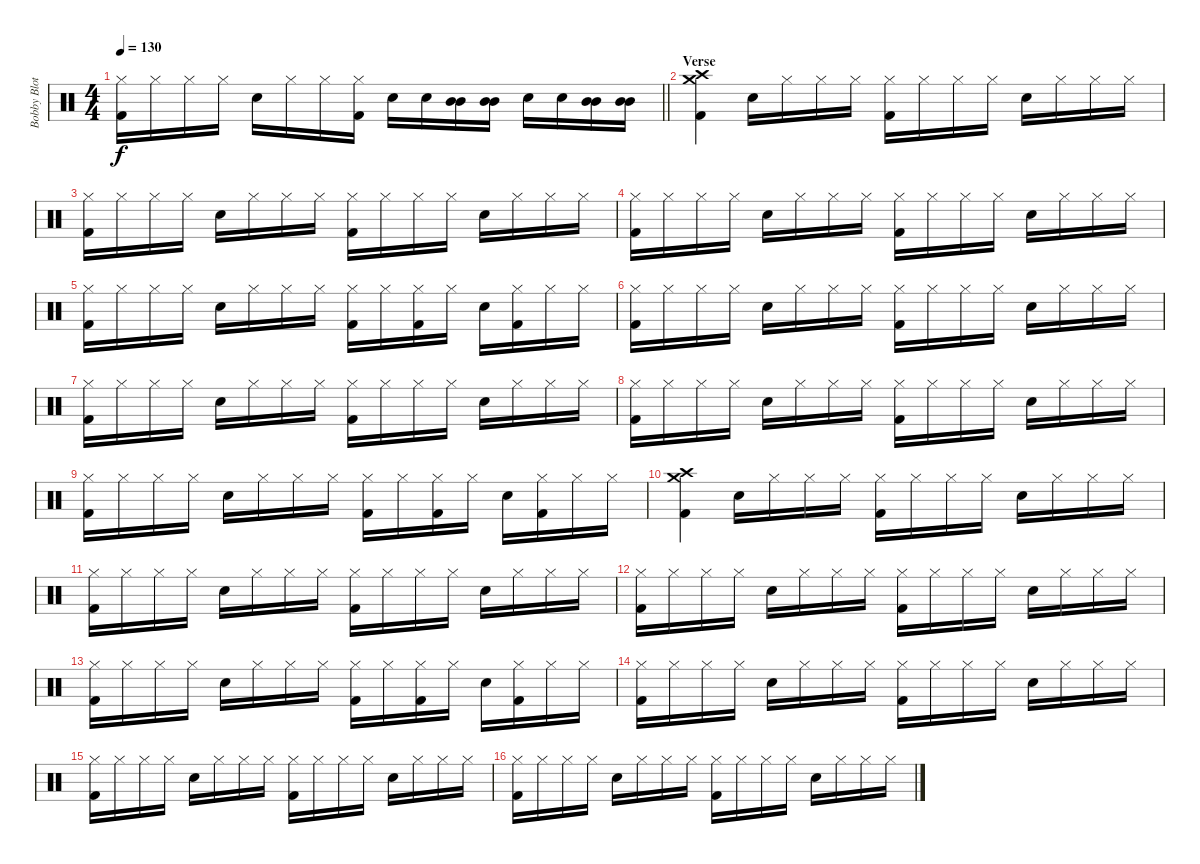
\track ("Bobby Blotzer - Drums" "Bobby Blot") {instrument percussion}
\staff {score}
\articulation defaults
\ts (4 4)
\tempo 130
\clef neutral
\barLineRight lightlight
\ks c
("Hi-Hat (closed)" "Kick (hit) 2").16{dy f} "Hi-Hat (closed)".16 "Hi-Hat (closed)".16 "Hi-Hat (closed)".16 "Snare (hit) 2".16 "Hi-Hat (closed)".16 "Hi-Hat (closed)".16 ("Hi-Hat (closed)" "Kick (hit) 2").16 "Snare (hit) 2".16 "Snare (hit) 2".16 ("Mid Tom (hit)" "Mid Tom (hit)").16 ("Mid Tom (hit)" "Mid Tom (hit)").16 "Snare (hit) 2".16 "Snare (hit) 2".16 ("Mid Tom (hit)" "Mid Tom (hit)").16 ("Mid Tom (hit)" "Mid Tom (hit)").16 |
\section ("" "Verse")
("Crash medium (hit)" "Crash high (hit)" "Kick (hit) 2").4 "Snare (hit) 2".16 "Hi-Hat (closed)".16 "Hi-Hat (closed)".16 "Hi-Hat (closed)".16 ("Hi-Hat (closed)" "Kick (hit) 2").16 "Hi-Hat (closed)".16 "Hi-Hat (closed)".16 "Hi-Hat (closed)".16 "Snare (hit) 2".16 "Hi-Hat (closed)".16 "Hi-Hat (closed)".16 "Hi-Hat (closed)".16 |
("Hi-Hat (closed)" "Kick (hit) 2").16 "Hi-Hat (closed)".16 "Hi-Hat (closed)".16 "Hi-Hat (closed)".16 "Snare (hit) 2".16 "Hi-Hat (closed)".16 "Hi-Hat (closed)".16 "Hi-Hat (closed)".16 ("Hi-Hat (closed)" "Kick (hit) 2").16 "Hi-Hat (closed)".16 "Hi-Hat (closed)".16 "Hi-Hat (closed)".16 "Snare (hit) 2".16 "Hi-Hat (closed)".16 "Hi-Hat (closed)".16 "Hi-Hat (closed)".16 |
("Hi-Hat (closed)" "Kick (hit) 2").16 "Hi-Hat (closed)".16 "Hi-Hat (closed)".16 "Hi-Hat (closed)".16 "Snare (hit) 2".16 "Hi-Hat (closed)".16 "Hi-Hat (closed)".16 "Hi-Hat (closed)".16 ("Hi-Hat (closed)" "Kick (hit) 2").16 "Hi-Hat (closed)".16 "Hi-Hat (closed)".16 "Hi-Hat (closed)".16 "Snare (hit) 2".16 "Hi-Hat (closed)".16 "Hi-Hat (closed)".16 "Hi-Hat (closed)".16 |
("Hi-Hat (closed)" "Kick (hit) 2").16 "Hi-Hat (closed)".16 "Hi-Hat (closed)".16 "Hi-Hat (closed)".16 "Snare (hit) 2".16 "Hi-Hat (closed)".16 "Hi-Hat (closed)".16 "Hi-Hat (closed)".16 ("Hi-Hat (closed)" "Kick (hit) 2").16 "Hi-Hat (closed)".16 ("Hi-Hat (closed)" "Kick (hit) 2").16 "Hi-Hat (closed)".16 "Snare (hit) 2".16 ("Hi-Hat (closed)" "Kick (hit) 2").16 "Hi-Hat (closed)".16 "Hi-Hat (closed)".16 |
("Hi-Hat (closed)" "Kick (hit) 2").16 "Hi-Hat (closed)".16 "Hi-Hat (closed)".16 "Hi-Hat (closed)".16 "Snare (hit) 2".16 "Hi-Hat (closed)".16 "Hi-Hat (closed)".16 "Hi-Hat (closed)".16 ("Hi-Hat (closed)" "Kick (hit) 2").16 "Hi-Hat (closed)".16 "Hi-Hat (closed)".16 "Hi-Hat (closed)".16 "Snare (hit) 2".16 "Hi-Hat (closed)".16 "Hi-Hat (closed)".16 "Hi-Hat (closed)".16 |
("Hi-Hat (closed)" "Kick (hit) 2").16 "Hi-Hat (closed)".16 "Hi-Hat (closed)".16 "Hi-Hat (closed)".16 "Snare (hit) 2".16 "Hi-Hat (closed)".16 "Hi-Hat (closed)".16 "Hi-Hat (closed)".16 ("Hi-Hat (closed)" "Kick (hit) 2").16 "Hi-Hat (closed)".16 "Hi-Hat (closed)".16 "Hi-Hat (closed)".16 "Snare (hit) 2".16 "Hi-Hat (closed)".16 "Hi-Hat (closed)".16 "Hi-Hat (closed)".16 |
("Hi-Hat (closed)" "Kick (hit) 2").16 "Hi-Hat (closed)".16 "Hi-Hat (closed)".16 "Hi-Hat (closed)".16 "Snare (hit) 2".16 "Hi-Hat (closed)".16 "Hi-Hat (closed)".16 "Hi-Hat (closed)".16 ("Hi-Hat (closed)" "Kick (hit) 2").16 "Hi-Hat (closed)".16 "Hi-Hat (closed)".16 "Hi-Hat (closed)".16 "Snare (hit) 2".16 "Hi-Hat (closed)".16 "Hi-Hat (closed)".16 "Hi-Hat (closed)".16 |
("Hi-Hat (closed)" "Kick (hit) 2").16 "Hi-Hat (closed)".16 "Hi-Hat (closed)".16 "Hi-Hat (closed)".16 "Snare (hit) 2".16 "Hi-Hat (closed)".16 "Hi-Hat (closed)".16 "Hi-Hat (closed)".16 ("Hi-Hat (closed)" "Kick (hit) 2").16 "Hi-Hat (closed)".16 ("Hi-Hat (closed)" "Kick (hit) 2").16 "Hi-Hat (closed)".16 "Snare (hit) 2".16 ("Hi-Hat (closed)" "Kick (hit) 2").16 "Hi-Hat (closed)".16 "Hi-Hat (closed)".16 |
("Crash medium (hit)" "Crash high (hit)" "Kick (hit) 2").4 "Snare (hit) 2".16 "Hi-Hat (closed)".16 "Hi-Hat (closed)".16 "Hi-Hat (closed)".16 ("Hi-Hat (closed)" "Kick (hit) 2").16 "Hi-Hat (closed)".16 "Hi-Hat (closed)".16 "Hi-Hat (closed)".16 "Snare (hit) 2".16 "Hi-Hat (closed)".16 "Hi-Hat (closed)".16 "Hi-Hat (closed)".16 |
("Hi-Hat (closed)" "Kick (hit) 2").16 "Hi-Hat (closed)".16 "Hi-Hat (closed)".16 "Hi-Hat (closed)".16 "Snare (hit) 2".16 "Hi-Hat (closed)".16 "Hi-Hat (closed)".16 "Hi-Hat (closed)".16 ("Hi-Hat (closed)" "Kick (hit) 2").16 "Hi-Hat (closed)".16 "Hi-Hat (closed)".16 "Hi-Hat (closed)".16 "Snare (hit) 2".16 "Hi-Hat (closed)".16 "Hi-Hat (closed)".16 "Hi-Hat (closed)".16 |
("Hi-Hat (closed)" "Kick (hit) 2").16 "Hi-Hat (closed)".16 "Hi-Hat (closed)".16 "Hi-Hat (closed)".16 "Snare (hit) 2".16 "Hi-Hat (closed)".16 "Hi-Hat (closed)".16 "Hi-Hat (closed)".16 ("Hi-Hat (closed)" "Kick (hit) 2").16 "Hi-Hat (closed)".16 "Hi-Hat (closed)".16 "Hi-Hat (closed)".16 "Snare (hit) 2".16 "Hi-Hat (closed)".16 "Hi-Hat (closed)".16 "Hi-Hat (closed)".16 |
("Hi-Hat (closed)" "Kick (hit) 2").16 "Hi-Hat (closed)".16 "Hi-Hat (closed)".16 "Hi-Hat (closed)".16 "Snare (hit) 2".16 "Hi-Hat (closed)".16 "Hi-Hat (closed)".16 "Hi-Hat (closed)".16 ("Hi-Hat (closed)" "Kick (hit) 2").16 "Hi-Hat (closed)".16 ("Hi-Hat (closed)" "Kick (hit) 2").16 "Hi-Hat (closed)".16 "Snare (hit) 2".16 ("Hi-Hat (closed)" "Kick (hit) 2").16 "Hi-Hat (closed)".16 "Hi-Hat (closed)".16 |
("Hi-Hat (closed)" "Kick (hit) 2").16 "Hi-Hat (closed)".16 "Hi-Hat (closed)".16 "Hi-Hat (closed)".16 "Snare (hit) 2".16 "Hi-Hat (closed)".16 "Hi-Hat (closed)".16 "Hi-Hat (closed)".16 ("Hi-Hat (closed)" "Kick (hit) 2").16 "Hi-Hat (closed)".16 "Hi-Hat (closed)".16 "Hi-Hat (closed)".16 "Snare (hit) 2".16 "Hi-Hat (closed)".16 "Hi-Hat (closed)".16 "Hi-Hat (closed)".16 |
("Hi-Hat (closed)" "Kick (hit) 2").16 "Hi-Hat (closed)".16 "Hi-Hat (closed)".16 "Hi-Hat (closed)".16 "Snare (hit) 2".16 "Hi-Hat (closed)".16 "Hi-Hat (closed)".16 "Hi-Hat (closed)".16 ("Hi-Hat (closed)" "Kick (hit) 2").16 "Hi-Hat (closed)".16 "Hi-Hat (closed)".16 "Hi-Hat (closed)".16 "Snare (hit) 2".16 "Hi-Hat (closed)".16 "Hi-Hat (closed)".16 "Hi-Hat (closed)".16 |
("Hi-Hat (closed)" "Kick (hit) 2").16 "Hi-Hat (closed)".16 "Hi-Hat (closed)".16 "Hi-Hat (closed)".16 "Snare (hit) 2".16 "Hi-Hat (closed)".16 "Hi-Hat (closed)".16 "Hi-Hat (closed)".16 ("Hi-Hat (closed)" "Kick (hit) 2").16 "Hi-Hat (closed)".16 "Hi-Hat (closed)".16 "Hi-Hat (closed)".16 "Snare (hit) 2".16 "Hi-Hat (closed)".16 "Hi-Hat (closed)".16 "Hi-Hat (closed)".16
